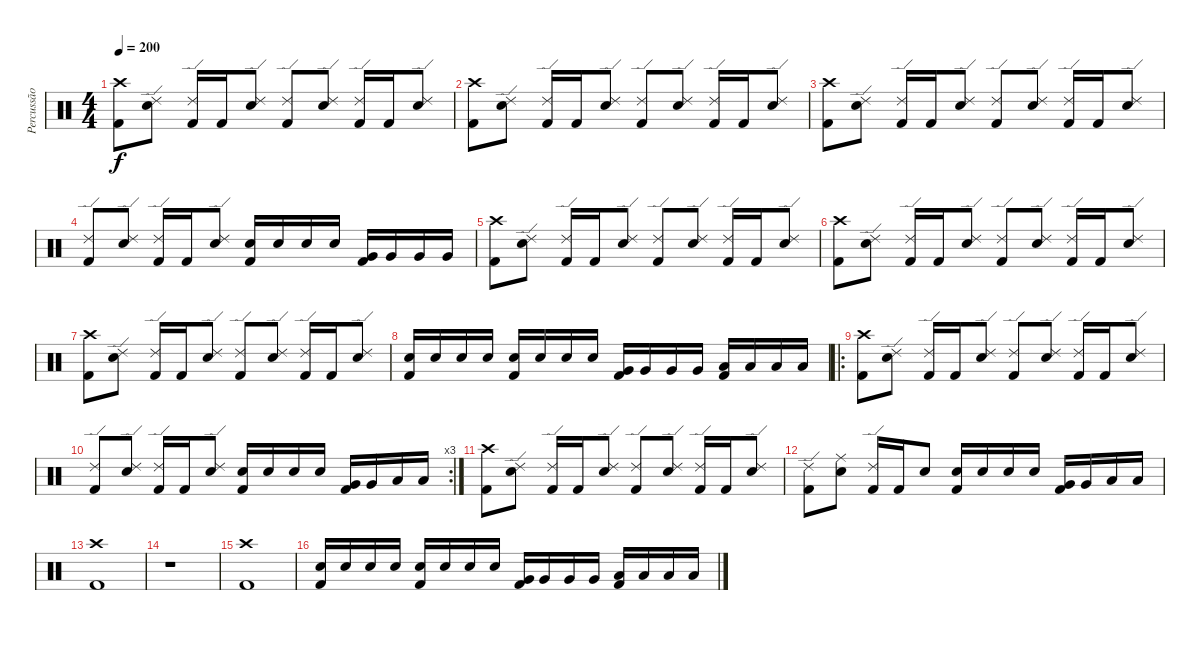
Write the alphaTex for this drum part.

\track ("Percussão" "Percussão") {instrument percussion}
\staff {score}
\articulation defaults
\ts (4 4)
\tempo 200
\clef neutral
\ks c
("Crash high (hit)" "Kick (hit) 2").8{dy f} ("Ride (edge) 2" "Snare (hit) 2").8 ("Ride (edge) 2" "Kick (hit) 2").16 "Kick (hit) 2".16 ("Ride (edge) 2" "Snare (hit) 2").8 ("Ride (edge) 2" "Kick (hit) 2").8 ("Ride (edge) 2" "Snare (hit) 2").8 ("Ride (edge) 2" "Kick (hit) 2").16 "Kick (hit) 2".16 ("Ride (edge) 2" "Snare (hit) 2").8 |
("Crash high (hit)" "Kick (hit) 2").8 ("Ride (edge) 2" "Snare (hit) 2").8 ("Ride (edge) 2" "Kick (hit) 2").16 "Kick (hit) 2".16 ("Ride (edge) 2" "Snare (hit) 2").8 ("Ride (edge) 2" "Kick (hit) 2").8 ("Ride (edge) 2" "Snare (hit) 2").8 ("Ride (edge) 2" "Kick (hit) 2").16 "Kick (hit) 2".16 ("Ride (edge) 2" "Snare (hit) 2").8 |
("Crash high (hit)" "Kick (hit) 2").8 ("Ride (edge) 2" "Snare (hit) 2").8 ("Ride (edge) 2" "Kick (hit) 2").16 "Kick (hit) 2".16 ("Ride (edge) 2" "Snare (hit) 2").8 ("Ride (edge) 2" "Kick (hit) 2").8 ("Ride (edge) 2" "Snare (hit) 2").8 ("Ride (edge) 2" "Kick (hit) 2").16 "Kick (hit) 2".16 ("Ride (edge) 2" "Snare (hit) 2").8 |
("Ride (edge) 2" "Kick (hit) 2").8 ("Ride (edge) 2" "Snare (hit) 2").8 ("Ride (edge) 2" "Kick (hit) 2").16 "Kick (hit) 2".16 ("Ride (edge) 2" "Snare (hit) 2").8 ("Snare (hit) 2" "Kick (hit) 2").16 "Snare (hit) 2".16 "Snare (hit) 2".16 "Snare (hit) 2".16 ("Very Low Tom (hit)" "Kick (hit) 2").16 "Very Low Tom (hit)".16 "Very Low Tom (hit)".16 "Very Low Tom (hit)".16 |
("Crash high (hit)" "Kick (hit) 2").8 ("Ride (edge) 2" "Snare (hit) 2").8 ("Ride (edge) 2" "Kick (hit) 2").16 "Kick (hit) 2".16 ("Ride (edge) 2" "Snare (hit) 2").8 ("Ride (edge) 2" "Kick (hit) 2").8 ("Ride (edge) 2" "Snare (hit) 2").8 ("Ride (edge) 2" "Kick (hit) 2").16 "Kick (hit) 2".16 ("Ride (edge) 2" "Snare (hit) 2").8 |
("Crash high (hit)" "Kick (hit) 2").8 ("Ride (edge) 2" "Snare (hit) 2").8 ("Ride (edge) 2" "Kick (hit) 2").16 "Kick (hit) 2".16 ("Ride (edge) 2" "Snare (hit) 2").8 ("Ride (edge) 2" "Kick (hit) 2").8 ("Ride (edge) 2" "Snare (hit) 2").8 ("Ride (edge) 2" "Kick (hit) 2").16 "Kick (hit) 2".16 ("Ride (edge) 2" "Snare (hit) 2").8 |
("Crash high (hit)" "Kick (hit) 2").8 ("Ride (edge) 2" "Snare (hit) 2").8 ("Ride (edge) 2" "Kick (hit) 2").16 "Kick (hit) 2".16 ("Ride (edge) 2" "Snare (hit) 2").8 ("Ride (edge) 2" "Kick (hit) 2").8 ("Ride (edge) 2" "Snare (hit) 2").8 ("Ride (edge) 2" "Kick (hit) 2").16 "Kick (hit) 2".16 ("Ride (edge) 2" "Snare (hit) 2").8 |
("Snare (hit) 2" "Kick (hit) 2").16 "Snare (hit) 2".16 "Snare (hit) 2".16 "Snare (hit) 2".16 ("Snare (hit) 2" "Kick (hit) 2").16 "Snare (hit) 2".16 "Snare (hit) 2".16 "Snare (hit) 2".16 ("Very Low Tom (hit)" "Kick (hit) 2").16 "Very Low Tom (hit)".16 "Very Low Tom (hit)".16 "Very Low Tom (hit)".16 ("Low Floor Tom (hit)" "Kick (hit) 2").16 "Low Floor Tom (hit)".16 "Low Floor Tom (hit)".16 "Low Floor Tom (hit)".16 |
\ro
("Crash high (hit)" "Kick (hit) 2").8 ("Ride (edge) 2" "Snare (hit) 2").8 ("Ride (edge) 2" "Kick (hit) 2").16 "Kick (hit) 2".16 ("Ride (edge) 2" "Snare (hit) 2").8 ("Ride (edge) 2" "Kick (hit) 2").8 ("Ride (edge) 2" "Snare (hit) 2").8 ("Ride (edge) 2" "Kick (hit) 2").16 "Kick (hit) 2".16 ("Ride (edge) 2" "Snare (hit) 2").8 |
\rc 3
("Ride (edge) 2" "Kick (hit) 2").8 ("Ride (edge) 2" "Snare (hit) 2").8 ("Ride (edge) 2" "Kick (hit) 2").16 "Kick (hit) 2".16 ("Ride (edge) 2" "Snare (hit) 2").8 ("Snare (hit) 2" "Kick (hit) 2").16 "Snare (hit) 2".16 "Snare (hit) 2".16 "Snare (hit) 2".16 ("Very Low Tom (hit)" "Kick (hit) 2").16 "Very Low Tom (hit)".16 "Low Floor Tom (hit)".16 "Low Floor Tom (hit)".16 |
("Crash high (hit)" "Kick (hit) 2").8 ("Ride (edge) 2" "Snare (hit) 2").8 ("Ride (edge) 2" "Kick (hit) 2").16 "Kick (hit) 2".16 ("Ride (edge) 2" "Snare (hit) 2").8 ("Ride (edge) 2" "Kick (hit) 2").8 ("Ride (edge) 2" "Snare (hit) 2").8 ("Ride (edge) 2" "Kick (hit) 2").16 "Kick (hit) 2".16 ("Ride (edge) 2" "Snare (hit) 2").8 |
("Ride (edge) 2" "Kick (hit) 2").8 ("Ride (middle)" "Snare (hit) 2").8 ("Ride (edge) 2" "Kick (hit) 2").16 "Kick (hit) 2".16 "Snare (hit) 2".8 ("Snare (hit) 2" "Kick (hit) 2").16 "Snare (hit) 2".16 "Snare (hit) 2".16 "Snare (hit) 2".16 ("Very Low Tom (hit)" "Kick (hit) 2").16 "Very Low Tom (hit)".16 "Low Floor Tom (hit)".16 "Low Floor Tom (hit)".16 |
("Crash high (hit)" "Kick (hit) 2").1 |
r.1 |
("Crash high (hit)" "Kick (hit) 2").1 |
("Snare (hit) 2" "Kick (hit) 2").16 "Snare (hit) 2".16 "Snare (hit) 2".16 "Snare (hit) 2".16 ("Snare (hit) 2" "Kick (hit) 2").16 "Snare (hit) 2".16 "Snare (hit) 2".16 "Snare (hit) 2".16 ("Very Low Tom (hit)" "Kick (hit) 2").16 "Very Low Tom (hit)".16 "Very Low Tom (hit)".16 "Very Low Tom (hit)".16 ("Low Floor Tom (hit)" "Kick (hit) 2").16 "Low Floor Tom (hit)".16 "Low Floor Tom (hit)".16 "Low Floor Tom (hit)".16
